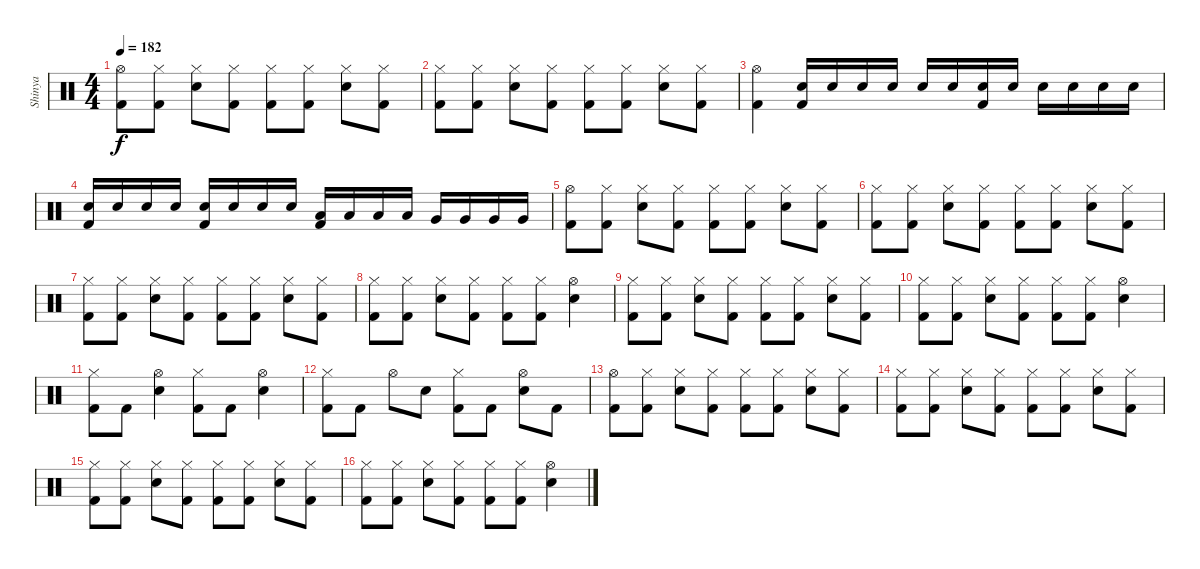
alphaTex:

\track ("Shinya" "Shinya") {instrument percussion}
\staff {score}
\articulation defaults
\ts (4 4)
\tempo 182
\clef neutral
\ks c
("Kick (hit) 2" "Hi-Hat (open)").8{dy f} ("Kick (hit) 2" "Hi-Hat (closed)").8 ("Snare (hit) 2" "Hi-Hat (closed)").8 ("Kick (hit) 2" "Hi-Hat (closed)").8 ("Kick (hit) 2" "Hi-Hat (closed)").8 ("Kick (hit) 2" "Hi-Hat (closed)").8 ("Snare (hit) 2" "Hi-Hat (closed)").8 ("Kick (hit) 2" "Hi-Hat (closed)").8 |
("Kick (hit) 2" "Hi-Hat (closed)").8 ("Kick (hit) 2" "Hi-Hat (closed)").8 ("Snare (hit) 2" "Hi-Hat (closed)").8 ("Kick (hit) 2" "Hi-Hat (closed)").8 ("Kick (hit) 2" "Hi-Hat (closed)").8 ("Kick (hit) 2" "Hi-Hat (closed)").8 ("Snare (hit) 2" "Hi-Hat (closed)").8 ("Kick (hit) 2" "Hi-Hat (closed)").8 |
("Kick (hit) 2" "Hi-Hat (open)").4 ("Snare (hit) 2" "Kick (hit) 2").16 "Snare (hit) 2".16 "Snare (hit) 2".16 "Snare (hit) 2".16 "Snare (hit) 2".16 "Snare (hit) 2".16 ("Kick (hit) 2" "Snare (hit) 2").16 "Snare (hit) 2".16 "Snare (hit) 2".16 "Snare (hit) 2".16 "Snare (hit) 2".16 "Snare (hit) 2".16 |
("Snare (hit) 2" "Kick (hit) 2").16 "Snare (hit) 2".16 "Snare (hit) 2".16 "Snare (hit) 2".16 ("Snare (hit) 2" "Kick (hit) 2").16 "Snare (hit) 2".16 "Snare (hit) 2".16 "Snare (hit) 2".16 ("Low Tom (hit)" "Kick (hit) 2").16 "Low Tom (hit)".16 "Low Tom (hit)".16 "Low Tom (hit)".16 "Very Low Tom (hit)".16 "Very Low Tom (hit)".16 "Very Low Tom (hit)".16 "Very Low Tom (hit)".16 |
("Kick (hit) 2" "Hi-Hat (open)").8 ("Kick (hit) 2" "Hi-Hat (closed)").8 ("Snare (hit) 2" "Hi-Hat (closed)").8 ("Kick (hit) 2" "Hi-Hat (closed)").8 ("Kick (hit) 2" "Hi-Hat (closed)").8 ("Kick (hit) 2" "Hi-Hat (closed)").8 ("Snare (hit) 2" "Hi-Hat (closed)").8 ("Kick (hit) 2" "Hi-Hat (closed)").8 |
("Kick (hit) 2" "Hi-Hat (closed)").8 ("Kick (hit) 2" "Hi-Hat (closed)").8 ("Snare (hit) 2" "Hi-Hat (closed)").8 ("Kick (hit) 2" "Hi-Hat (closed)").8 ("Kick (hit) 2" "Hi-Hat (closed)").8 ("Kick (hit) 2" "Hi-Hat (closed)").8 ("Snare (hit) 2" "Hi-Hat (closed)").8 ("Kick (hit) 2" "Hi-Hat (closed)").8 |
("Kick (hit) 2" "Hi-Hat (closed)").8 ("Kick (hit) 2" "Hi-Hat (closed)").8 ("Snare (hit) 2" "Hi-Hat (closed)").8 ("Kick (hit) 2" "Hi-Hat (closed)").8 ("Kick (hit) 2" "Hi-Hat (closed)").8 ("Kick (hit) 2" "Hi-Hat (closed)").8 ("Snare (hit) 2" "Hi-Hat (closed)").8 ("Kick (hit) 2" "Hi-Hat (closed)").8 |
("Kick (hit) 2" "Hi-Hat (closed)").8 ("Kick (hit) 2" "Hi-Hat (closed)").8 ("Snare (hit) 2" "Hi-Hat (closed)").8 ("Kick (hit) 2" "Hi-Hat (closed)").8 ("Kick (hit) 2" "Hi-Hat (closed)").8 ("Kick (hit) 2" "Hi-Hat (closed)").8 ("Snare (hit) 2" "Hi-Hat (open)").4 |
("Kick (hit) 2" "Hi-Hat (closed)").8 ("Kick (hit) 2" "Hi-Hat (closed)").8 ("Snare (hit) 2" "Hi-Hat (closed)").8 ("Kick (hit) 2" "Hi-Hat (closed)").8 ("Kick (hit) 2" "Hi-Hat (closed)").8 ("Kick (hit) 2" "Hi-Hat (closed)").8 ("Snare (hit) 2" "Hi-Hat (closed)").8 ("Kick (hit) 2" "Hi-Hat (closed)").8 |
("Kick (hit) 2" "Hi-Hat (closed)").8 ("Kick (hit) 2" "Hi-Hat (closed)").8 ("Snare (hit) 2" "Hi-Hat (closed)").8 ("Kick (hit) 2" "Hi-Hat (closed)").8 ("Kick (hit) 2" "Hi-Hat (closed)").8 ("Kick (hit) 2" "Hi-Hat (closed)").8 ("Snare (hit) 2" "Hi-Hat (open)").4 |
("Kick (hit) 2" "Hi-Hat (closed)").8 "Kick (hit) 2".8 ("Snare (hit) 2" "Hi-Hat (open)").4 ("Kick (hit) 2" "Hi-Hat (closed)").8 "Kick (hit) 2".8 ("Snare (hit) 2" "Hi-Hat (open)").4 |
("Kick (hit) 2" "Hi-Hat (closed)").8 "Kick (hit) 2".8 "Hi-Hat (open)".8 "Snare (hit) 2".8 ("Kick (hit) 2" "Hi-Hat (closed)").8 "Kick (hit) 2".8 ("Snare (hit) 2" "Hi-Hat (open)").8 "Kick (hit) 2".8 |
("Kick (hit) 2" "Hi-Hat (open)").8 ("Kick (hit) 2" "Hi-Hat (closed)").8 ("Snare (hit) 2" "Hi-Hat (closed)").8 ("Kick (hit) 2" "Hi-Hat (closed)").8 ("Kick (hit) 2" "Hi-Hat (closed)").8 ("Kick (hit) 2" "Hi-Hat (closed)").8 ("Snare (hit) 2" "Hi-Hat (closed)").8 ("Kick (hit) 2" "Hi-Hat (closed)").8 |
("Kick (hit) 2" "Hi-Hat (closed)").8 ("Kick (hit) 2" "Hi-Hat (closed)").8 ("Snare (hit) 2" "Hi-Hat (closed)").8 ("Kick (hit) 2" "Hi-Hat (closed)").8 ("Kick (hit) 2" "Hi-Hat (closed)").8 ("Kick (hit) 2" "Hi-Hat (closed)").8 ("Snare (hit) 2" "Hi-Hat (closed)").8 ("Kick (hit) 2" "Hi-Hat (closed)").8 |
("Kick (hit) 2" "Hi-Hat (closed)").8 ("Kick (hit) 2" "Hi-Hat (closed)").8 ("Snare (hit) 2" "Hi-Hat (closed)").8 ("Kick (hit) 2" "Hi-Hat (closed)").8 ("Kick (hit) 2" "Hi-Hat (closed)").8 ("Kick (hit) 2" "Hi-Hat (closed)").8 ("Snare (hit) 2" "Hi-Hat (closed)").8 ("Kick (hit) 2" "Hi-Hat (closed)").8 |
("Kick (hit) 2" "Hi-Hat (closed)").8 ("Kick (hit) 2" "Hi-Hat (closed)").8 ("Snare (hit) 2" "Hi-Hat (closed)").8 ("Kick (hit) 2" "Hi-Hat (closed)").8 ("Kick (hit) 2" "Hi-Hat (closed)").8 ("Kick (hit) 2" "Hi-Hat (closed)").8 ("Snare (hit) 2" "Hi-Hat (open)").4
